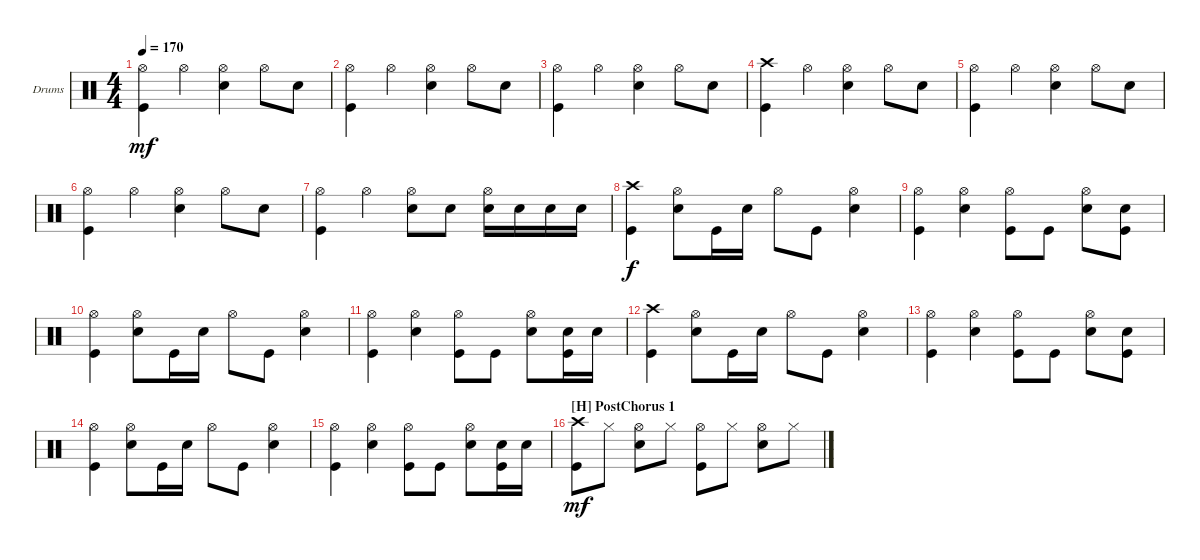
\defaultSystemsLayout 4
\bracketExtendMode groupsimilarinstruments
\firstSystemTrackNameOrientation horizontal
\otherSystemsTrackNameOrientation horizontal
\track ("Drumkit" "Drums") {instrument percussion}
\staff {score}
\articulation defaults
\ts (4 4)
\tempo 170
\clef neutral
\ks c
("Kick (hit)" "Hi-Hat (open)").4{dy mf} "Hi-Hat (open)".4 ("Snare (hit) 2" "Hi-Hat (open)").4 "Hi-Hat (open)".8 "Snare (hit) 2".8 |
("Kick (hit)" "Hi-Hat (open)").4 "Hi-Hat (open)".4 ("Snare (hit) 2" "Hi-Hat (open)").4 "Hi-Hat (open)".8 "Snare (hit) 2".8 |
("Kick (hit)" "Hi-Hat (open)").4 "Hi-Hat (open)".4 ("Snare (hit) 2" "Hi-Hat (open)").4 "Hi-Hat (open)".8 "Snare (hit) 2".8 |
("Crash high (hit)" "Kick (hit)").4 "Hi-Hat (open)".4 ("Snare (hit) 2" "Hi-Hat (open)").4 "Hi-Hat (open)".8 "Snare (hit) 2".8 |
("Kick (hit)" "Hi-Hat (open)").4 "Hi-Hat (open)".4 ("Snare (hit) 2" "Hi-Hat (open)").4 "Hi-Hat (open)".8 "Snare (hit) 2".8 |
("Kick (hit)" "Hi-Hat (open)").4 "Hi-Hat (open)".4 ("Snare (hit) 2" "Hi-Hat (open)").4 "Hi-Hat (open)".8 "Snare (hit) 2".8 |
("Kick (hit)" "Hi-Hat (open)").4 "Hi-Hat (open)".4 ("Snare (hit) 2" "Hi-Hat (open)").8 "Snare (hit) 2".8 ("Hi-Hat (open)" "Snare (hit) 2").16 "Snare (hit) 2".16 "Snare (hit) 2".16 "Snare (hit) 2".16 |
("Crash high (hit)" "Kick (hit)").4{dy f} ("Hi-Hat (open)" "Snare (hit) 2").8 "Kick (hit)".16 "Snare (hit) 2".16 "Hi-Hat (open)".8 "Kick (hit)".8 ("Hi-Hat (open)" "Snare (hit) 2").4 |
("Hi-Hat (open)" "Kick (hit)").4 ("Hi-Hat (open)" "Snare (hit) 2").4 ("Hi-Hat (open)" "Kick (hit)").8 "Kick (hit)".8 ("Hi-Hat (open)" "Snare (hit) 2").8 ("Snare (hit) 2" "Kick (hit)").8 |
("Hi-Hat (open)" "Kick (hit)").4 ("Hi-Hat (open)" "Snare (hit) 2").8 "Kick (hit)".16 "Snare (hit) 2".16 "Hi-Hat (open)".8 "Kick (hit)".8 ("Hi-Hat (open)" "Snare (hit) 2").4 |
("Hi-Hat (open)" "Kick (hit)").4 ("Hi-Hat (open)" "Snare (hit) 2").4 ("Hi-Hat (open)" "Kick (hit)").8 "Kick (hit)".8 ("Hi-Hat (open)" "Snare (hit) 2").8 ("Snare (hit) 2" "Kick (hit)").16 "Snare (hit) 2".16 |
("Crash high (hit)" "Kick (hit)").4 ("Hi-Hat (open)" "Snare (hit) 2").8 "Kick (hit)".16 "Snare (hit) 2".16 "Hi-Hat (open)".8 "Kick (hit)".8 ("Hi-Hat (open)" "Snare (hit) 2").4 |
("Hi-Hat (open)" "Kick (hit)").4 ("Hi-Hat (open)" "Snare (hit) 2").4 ("Hi-Hat (open)" "Kick (hit)").8 "Kick (hit)".8 ("Hi-Hat (open)" "Snare (hit) 2").8 ("Snare (hit) 2" "Kick (hit)").8 |
("Hi-Hat (open)" "Kick (hit)").4 ("Hi-Hat (open)" "Snare (hit) 2").8 "Kick (hit)".16 "Snare (hit) 2".16 "Hi-Hat (open)".8 "Kick (hit)".8 ("Hi-Hat (open)" "Snare (hit) 2").4 |
("Hi-Hat (open)" "Kick (hit)").4 ("Hi-Hat (open)" "Snare (hit) 2").4 ("Hi-Hat (open)" "Kick (hit)").8 "Kick (hit)".8 ("Hi-Hat (open)" "Snare (hit) 2").8 ("Snare (hit) 2" "Kick (hit)").16 "Snare (hit) 2".16 |
\section ("H" "PostChorus 1")
("Crash high (hit)" "Kick (hit)").8{dy mf} "Hi-Hat (closed)".8 ("Hi-Hat (open)" "Snare (hit) 2").8 "Hi-Hat (closed)".8 ("Kick (hit)" "Hi-Hat (open)").8 "Hi-Hat (closed)".8 ("Hi-Hat (open)" "Snare (hit) 2").8 "Hi-Hat (closed)".8
